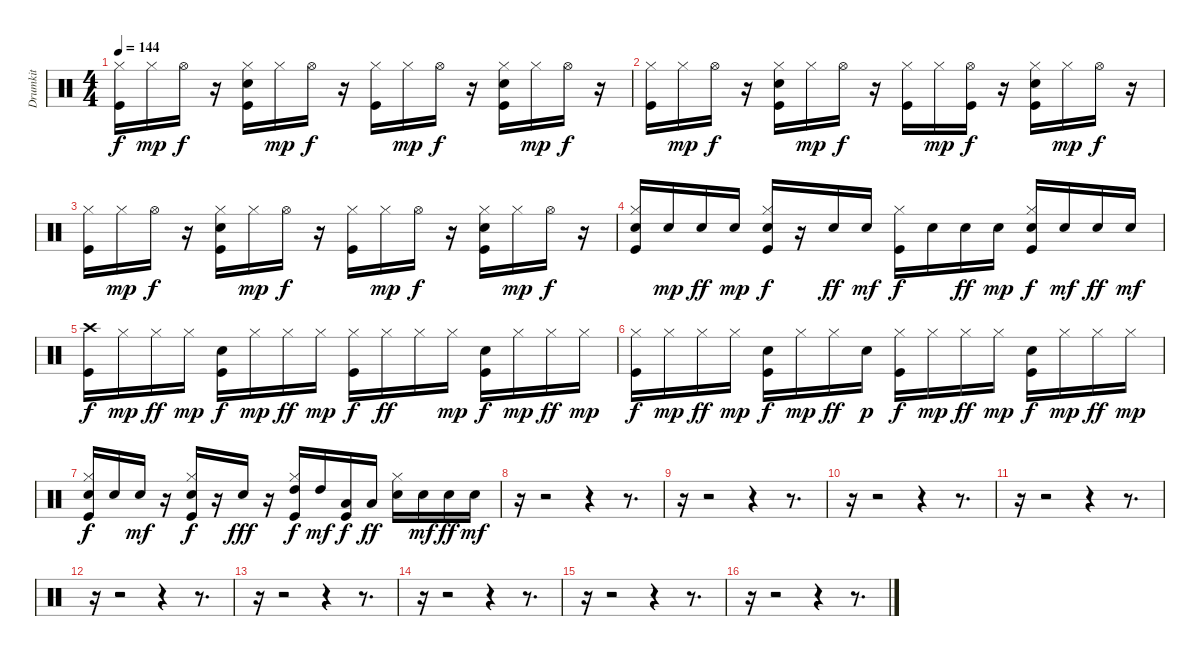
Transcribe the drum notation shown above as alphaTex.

\track ("Drumkit" "Drumkit") {instrument percussion}
\staff {score}
\articulation defaults
\ts (4 4)
\tempo 144
\clef neutral
\ks c
("Kick (hit)" "Hi-Hat (closed)").16{dy f} "Hi-Hat (closed)".16{dy mp} "Hi-Hat (open)".16{dy f} r.16 ("Kick (hit)" "Snare (hit) 2" "Hi-Hat (closed)").16 "Hi-Hat (closed)".16{dy mp} "Hi-Hat (open)".16{dy f} r.16 ("Kick (hit)" "Hi-Hat (closed)").16 "Hi-Hat (closed)".16{dy mp} "Hi-Hat (open)".16{dy f} r.16 ("Kick (hit)" "Snare (hit) 2" "Hi-Hat (closed)").16 "Hi-Hat (closed)".16{dy mp} "Hi-Hat (open)".16{dy f} r.16 |
("Kick (hit)" "Hi-Hat (closed)").16 "Hi-Hat (closed)".16{dy mp} "Hi-Hat (open)".16{dy f} r.16 ("Kick (hit)" "Snare (hit) 2" "Hi-Hat (closed)").16 "Hi-Hat (closed)".16{dy mp} "Hi-Hat (open)".16{dy f} r.16 ("Kick (hit)" "Hi-Hat (closed)").16 "Hi-Hat (closed)".16{dy mp} ("Kick (hit)" "Hi-Hat (open)").16{dy f} r.16 ("Kick (hit)" "Snare (hit) 2" "Hi-Hat (closed)").16 "Hi-Hat (closed)".16{dy mp} "Hi-Hat (open)".16{dy f} r.16 |
("Kick (hit)" "Hi-Hat (closed)").16 "Hi-Hat (closed)".16{dy mp} "Hi-Hat (open)".16{dy f} r.16 ("Kick (hit)" "Snare (hit) 2" "Hi-Hat (closed)").16 "Hi-Hat (closed)".16{dy mp} "Hi-Hat (open)".16{dy f} r.16 ("Kick (hit)" "Hi-Hat (closed)").16 "Hi-Hat (closed)".16{dy mp} "Hi-Hat (open)".16{dy f} r.16 ("Kick (hit)" "Snare (hit) 2" "Hi-Hat (closed)").16 "Hi-Hat (closed)".16{dy mp} "Hi-Hat (open)".16{dy f} r.16 |
("Kick (hit)" "Snare (hit) 2" "Hi-Hat (closed)").16 "Snare (hit) 2".16{dy mp} "Snare (hit) 2".16{dy ff} "Snare (hit) 2".16{dy mp} ("Kick (hit)" "Snare (hit) 2" "Hi-Hat (closed)").16{dy f} r.16 "Snare (hit) 2".16{dy ff} "Snare (hit) 2".16{dy mf} ("Kick (hit)" "Hi-Hat (closed)").16{dy f} "Snare (hit) 2".16 "Snare (hit) 2".16{dy ff} "Snare (hit) 2".16{dy mp} ("Kick (hit)" "Snare (hit) 2" "Hi-Hat (closed)").16{dy f} "Snare (hit) 2".16{dy mf} "Snare (hit) 2".16{dy ff} "Snare (hit) 2".16{dy mf} |
("Kick (hit)" "Crash high (hit)").16{dy f} "Hi-Hat (closed)".16{dy mp} "Hi-Hat (closed)".16{dy ff} "Hi-Hat (closed)".16{dy mp} ("Kick (hit)" "Snare (hit) 2").16{dy f} "Hi-Hat (closed)".16{dy mp} "Hi-Hat (closed)".16{dy ff} "Hi-Hat (closed)".16{dy mp} ("Kick (hit)" "Hi-Hat (closed)").16{dy f} "Hi-Hat (closed)".16{dy ff} "Hi-Hat (closed)".16 "Hi-Hat (closed)".16{dy mp} ("Kick (hit)" "Snare (hit) 2").16{dy f} "Hi-Hat (closed)".16{dy mp} "Hi-Hat (closed)".16{dy ff} "Hi-Hat (closed)".16{dy mp} |
("Kick (hit)" "Hi-Hat (closed)").16{dy f} "Hi-Hat (closed)".16{dy mp} "Hi-Hat (closed)".16{dy ff} "Hi-Hat (closed)".16{dy mp} ("Kick (hit)" "Snare (hit) 2").16{dy f} "Hi-Hat (closed)".16{dy mp} "Hi-Hat (closed)".16{dy ff} "Snare (hit) 2".16{dy p} ("Kick (hit)" "Hi-Hat (closed)").16{dy f} "Hi-Hat (closed)".16{dy mp} "Hi-Hat (closed)".16{dy ff} "Hi-Hat (closed)".16{dy mp} ("Kick (hit)" "Snare (hit) 2").16{dy f} "Hi-Hat (closed)".16{dy mp} "Hi-Hat (closed)".16{dy ff} "Hi-Hat (closed)".16{dy mp} |
("Kick (hit)" "Snare (hit) 2" "Hi-Hat (closed)").16{dy f} "Snare (hit) 2".16 "Snare (hit) 2".16{dy mf} r.16 ("Kick (hit)" "Snare (hit) 2" "Hi-Hat (closed)").16{dy f} r.16 "Snare (hit) 2".16{dy fff} r.16 ("Kick (hit)" "Hi-Hat (closed)" "High Tom (hit)").16{dy f} "High Tom (hit)".16{dy mf} ("Kick (hit)" "Low Tom (hit)").16{dy f} "Low Floor Tom (hit)".16{dy ff} ("Snare (hit) 2" "Hi-Hat (closed)").16 "Snare (hit) 2".16{dy mf} "Snare (hit) 2".16{dy ff} "Snare (hit) 2".16{dy mf} |
r.16 r.2 r.4 r.8{d} |
r.16 r.2 r.4 r.8{d} |
r.16 r.2 r.4 r.8{d} |
r.16 r.2 r.4 r.8{d} |
r.16 r.2 r.4 r.8{d} |
r.16 r.2 r.4 r.8{d} |
r.16 r.2 r.4 r.8{d} |
r.16 r.2 r.4 r.8{d} |
r.16 r.2 r.4 r.8{d}
